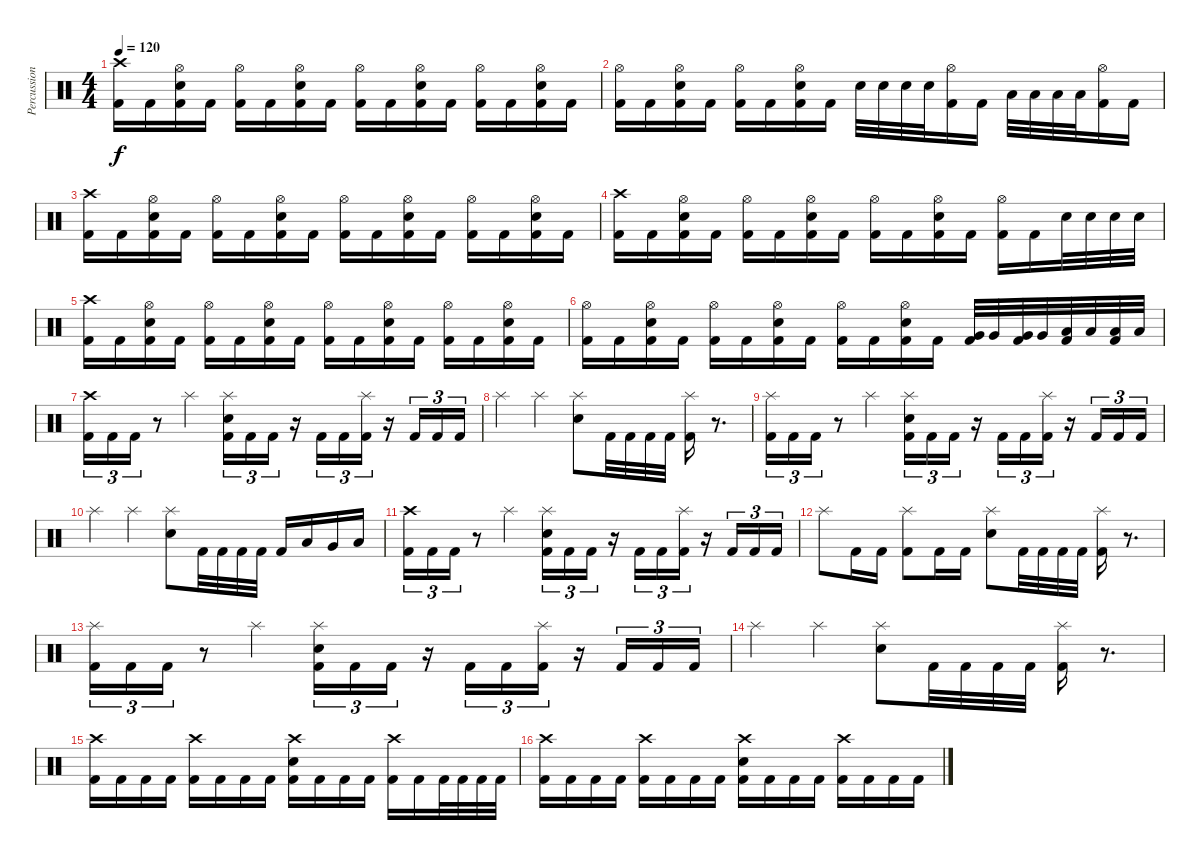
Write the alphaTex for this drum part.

\track ("Percussion" "Percussion") {instrument percussion}
\staff {score}
\articulation defaults
\ts (4 4)
\tempo 120
\clef neutral
\ks c
("Crash high (hit)" "Kick (hit) 2").16{dy f} "Kick (hit) 2".16 ("Hi-Hat (open)" "Electric Snare (hit)" "Kick (hit) 2").16 "Kick (hit) 2".16 ("Hi-Hat (open)" "Kick (hit) 2").16 "Kick (hit) 2".16 ("Hi-Hat (open)" "Electric Snare (hit)" "Kick (hit) 2").16 "Kick (hit) 2".16 ("Hi-Hat (open)" "Kick (hit) 2").16 "Kick (hit) 2".16 ("Hi-Hat (open)" "Electric Snare (hit)" "Kick (hit) 2").16 "Kick (hit) 2".16 ("Hi-Hat (open)" "Kick (hit) 2").16 "Kick (hit) 2".16 ("Hi-Hat (open)" "Electric Snare (hit)" "Kick (hit) 2").16 "Kick (hit) 2".16 |
("Hi-Hat (open)" "Kick (hit) 2").16 "Kick (hit) 2".16 ("Hi-Hat (open)" "Electric Snare (hit)" "Kick (hit) 2").16 "Kick (hit) 2".16 ("Hi-Hat (open)" "Kick (hit) 2").16 "Kick (hit) 2".16 ("Hi-Hat (open)" "Electric Snare (hit)" "Kick (hit) 2").16 "Kick (hit) 2".16 "Electric Snare (hit)".32 "Electric Snare (hit)".32 "Electric Snare (hit)".32 "Electric Snare (hit)".32 ("Hi-Hat (open)" "Kick (hit) 2").16 "Kick (hit) 2".16 "Low Tom (hit)".32 "Low Tom (hit)".32 "Low Tom (hit)".32 "Low Tom (hit)".32 ("Hi-Hat (open)" "Kick (hit) 2").16 "Kick (hit) 2".16 |
("Crash high (hit)" "Kick (hit) 2").16 "Kick (hit) 2".16 ("Hi-Hat (open)" "Electric Snare (hit)" "Kick (hit) 2").16 "Kick (hit) 2".16 ("Hi-Hat (open)" "Kick (hit) 2").16 "Kick (hit) 2".16 ("Hi-Hat (open)" "Electric Snare (hit)" "Kick (hit) 2").16 "Kick (hit) 2".16 ("Hi-Hat (open)" "Kick (hit) 2").16 "Kick (hit) 2".16 ("Hi-Hat (open)" "Electric Snare (hit)" "Kick (hit) 2").16 "Kick (hit) 2".16 ("Hi-Hat (open)" "Kick (hit) 2").16 "Kick (hit) 2".16 ("Hi-Hat (open)" "Electric Snare (hit)" "Kick (hit) 2").16 "Kick (hit) 2".16 |
("Crash high (hit)" "Kick (hit) 2").16 "Kick (hit) 2".16 ("Hi-Hat (open)" "Electric Snare (hit)" "Kick (hit) 2").16 "Kick (hit) 2".16 ("Hi-Hat (open)" "Kick (hit) 2").16 "Kick (hit) 2".16 ("Hi-Hat (open)" "Electric Snare (hit)" "Kick (hit) 2").16 "Kick (hit) 2".16 ("Hi-Hat (open)" "Kick (hit) 2").16 "Kick (hit) 2".16 ("Hi-Hat (open)" "Electric Snare (hit)" "Kick (hit) 2").16 "Kick (hit) 2".16 ("Hi-Hat (open)" "Kick (hit) 2").16 "Kick (hit) 2".16 "Electric Snare (hit)".32 "Electric Snare (hit)".32 "Electric Snare (hit)".32 "Electric Snare (hit)".32 |
("Crash high (hit)" "Kick (hit) 2").16 "Kick (hit) 2".16 ("Hi-Hat (open)" "Electric Snare (hit)" "Kick (hit) 2").16 "Kick (hit) 2".16 ("Hi-Hat (open)" "Kick (hit) 2").16 "Kick (hit) 2".16 ("Hi-Hat (open)" "Electric Snare (hit)" "Kick (hit) 2").16 "Kick (hit) 2".16 ("Hi-Hat (open)" "Kick (hit) 2").16 "Kick (hit) 2".16 ("Hi-Hat (open)" "Electric Snare (hit)" "Kick (hit) 2").16 "Kick (hit) 2".16 ("Hi-Hat (open)" "Kick (hit) 2").16 "Kick (hit) 2".16 ("Hi-Hat (open)" "Electric Snare (hit)" "Kick (hit) 2").16 "Kick (hit) 2".16 |
("Hi-Hat (open)" "Kick (hit) 2").16 "Kick (hit) 2".16 ("Hi-Hat (open)" "Electric Snare (hit)" "Kick (hit) 2").16 "Kick (hit) 2".16 ("Hi-Hat (open)" "Kick (hit) 2").16 "Kick (hit) 2".16 ("Hi-Hat (open)" "Electric Snare (hit)" "Kick (hit) 2").16 "Kick (hit) 2".16 ("Hi-Hat (open)" "Kick (hit) 2").16 "Kick (hit) 2".16 ("Hi-Hat (open)" "Electric Snare (hit)" "Kick (hit) 2").16 "Kick (hit) 2".16 ("Very Low Tom (hit)" "Kick (hit) 2").32 "Very Low Tom (hit)".32 ("Very Low Tom (hit)" "Kick (hit) 2").32 "Very Low Tom (hit)".32 ("Low Floor Tom (hit)" "Kick (hit) 2").32 "Low Floor Tom (hit)".32 ("Low Floor Tom (hit)" "Kick (hit) 2").32 "Low Floor Tom (hit)".32 |
("Crash high (hit)" "Kick (hit) 2").16{tu (3 2)} "Kick (hit) 2".16{tu (3 2)} "Kick (hit) 2".16{tu (3 2)} r.8 "Splash (hit)".4 ("Splash (hit)" "Electric Snare (hit)" "Kick (hit) 2").16{tu (3 2)} "Kick (hit) 2".16{tu (3 2)} "Kick (hit) 2".16{tu (3 2)} r.16 "Kick (hit) 2".16{tu (3 2)} "Kick (hit) 2".16{tu (3 2)} ("Splash (hit)" "Kick (hit) 2").16{tu (3 2)} r.16 "Kick (hit) 2".16{tu (3 2)} "Kick (hit) 2".16{tu (3 2)} "Kick (hit) 2".16{tu (3 2)} |
"Splash (hit)".4 "Splash (hit)".4 ("Splash (hit)" "Electric Snare (hit)").8 "Kick (hit) 2".32 "Kick (hit) 2".32 "Kick (hit) 2".32 "Kick (hit) 2".32 ("Splash (hit)" "Kick (hit) 2").16 r.8{d} |
("Splash (hit)" "Kick (hit) 2").16{tu (3 2)} "Kick (hit) 2".16{tu (3 2)} "Kick (hit) 2".16{tu (3 2)} r.8 "Splash (hit)".4 ("Splash (hit)" "Electric Snare (hit)" "Kick (hit) 2").16{tu (3 2)} "Kick (hit) 2".16{tu (3 2)} "Kick (hit) 2".16{tu (3 2)} r.16 "Kick (hit) 2".16{tu (3 2)} "Kick (hit) 2".16{tu (3 2)} ("Splash (hit)" "Kick (hit) 2").16{tu (3 2)} r.16 "Kick (hit) 2".16{tu (3 2)} "Kick (hit) 2".16{tu (3 2)} "Kick (hit) 2".16{tu (3 2)} |
"Splash (hit)".4 "Splash (hit)".4 ("Splash (hit)" "Electric Snare (hit)").8 "Kick (hit) 2".32 "Kick (hit) 2".32 "Kick (hit) 2".32 "Kick (hit) 2".32 "Kick (hit) 2".16 "Low Tom (hit)".16 "Very Low Tom (hit)".16 "Low Floor Tom (hit)".16 |
("Crash high (hit)" "Kick (hit) 2").16{tu (3 2)} "Kick (hit) 2".16{tu (3 2)} "Kick (hit) 2".16{tu (3 2)} r.8 "Splash (hit)".4 ("Splash (hit)" "Electric Snare (hit)" "Kick (hit) 2").16{tu (3 2)} "Kick (hit) 2".16{tu (3 2)} "Kick (hit) 2".16{tu (3 2)} r.16 "Kick (hit) 2".16{tu (3 2)} "Kick (hit) 2".16{tu (3 2)} ("Splash (hit)" "Kick (hit) 2").16{tu (3 2)} r.16 "Kick (hit) 2".16{tu (3 2)} "Kick (hit) 2".16{tu (3 2)} "Kick (hit) 2".16{tu (3 2)} |
"Splash (hit)".8 "Kick (hit) 2".16 "Kick (hit) 2".16 ("Splash (hit)" "Kick (hit) 2").8 "Kick (hit) 2".16 "Kick (hit) 2".16 ("Splash (hit)" "Electric Snare (hit)").8 "Kick (hit) 2".32 "Kick (hit) 2".32 "Kick (hit) 2".32 "Kick (hit) 2".32 ("Splash (hit)" "Kick (hit) 2").16 r.8{d} |
("Splash (hit)" "Kick (hit) 2").16{tu (3 2)} "Kick (hit) 2".16{tu (3 2)} "Kick (hit) 2".16{tu (3 2)} r.8 "Splash (hit)".4 ("Splash (hit)" "Electric Snare (hit)" "Kick (hit) 2").16{tu (3 2)} "Kick (hit) 2".16{tu (3 2)} "Kick (hit) 2".16{tu (3 2)} r.16 "Kick (hit) 2".16{tu (3 2)} "Kick (hit) 2".16{tu (3 2)} ("Splash (hit)" "Kick (hit) 2").16{tu (3 2)} r.16 "Kick (hit) 2".16{tu (3 2)} "Kick (hit) 2".16{tu (3 2)} "Kick (hit) 2".16{tu (3 2)} |
"Splash (hit)".4 "Splash (hit)".4 ("Splash (hit)" "Electric Snare (hit)").8 "Kick (hit) 2".32 "Kick (hit) 2".32 "Kick (hit) 2".32 "Kick (hit) 2".32 ("Splash (hit)" "Kick (hit) 2").16 r.8{d} |
("Crash high (hit)" "Kick (hit) 2").16 "Kick (hit) 2".16 "Kick (hit) 2".16 "Kick (hit) 2".16 ("Crash high (hit)" "Kick (hit) 2").16 "Kick (hit) 2".16 "Kick (hit) 2".16 "Kick (hit) 2".16 ("Crash high (hit)" "Electric Snare (hit)" "Kick (hit) 2").16 "Kick (hit) 2".16 "Kick (hit) 2".16 "Kick (hit) 2".16 ("Crash high (hit)" "Kick (hit) 2").16 "Kick (hit) 2".16 "Kick (hit) 2".32 "Kick (hit) 2".32 "Kick (hit) 2".32 "Kick (hit) 2".32 |
("Crash high (hit)" "Kick (hit) 2").16 "Kick (hit) 2".16 "Kick (hit) 2".16 "Kick (hit) 2".16 ("Crash high (hit)" "Kick (hit) 2").16 "Kick (hit) 2".16 "Kick (hit) 2".16 "Kick (hit) 2".16 ("Crash high (hit)" "Electric Snare (hit)" "Kick (hit) 2").16 "Kick (hit) 2".16 "Kick (hit) 2".16 "Kick (hit) 2".16 ("Crash high (hit)" "Kick (hit) 2").16 "Kick (hit) 2".16 "Kick (hit) 2".16 "Kick (hit) 2".16
